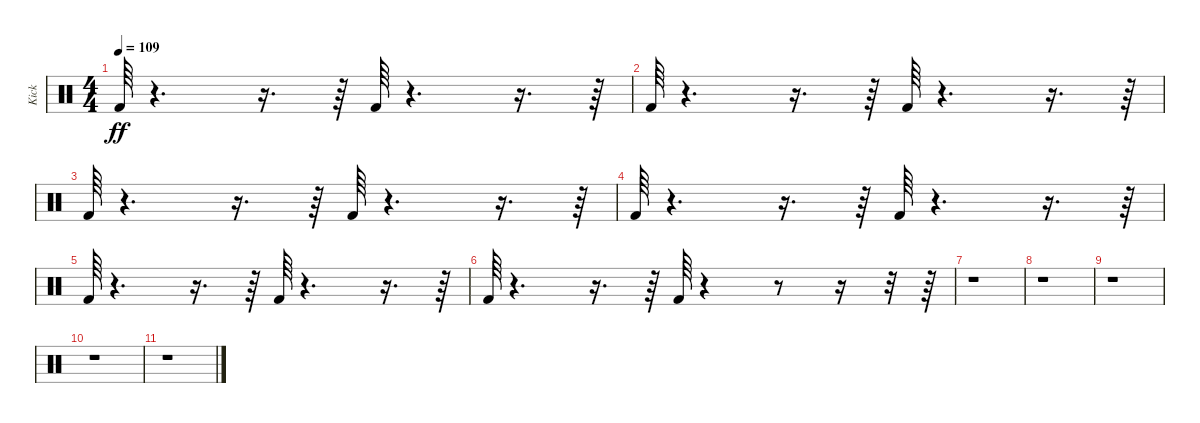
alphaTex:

\track ("Kick" "Kick") {instrument percussion}
\staff {score}
\articulation defaults
\ts (4 4)
\tempo 109
\clef neutral
\ks c "Kick (hit) 2".64{dy ff}
r.4{d} r.16{d} r.64 "Kick (hit) 2".64 r.4{d} r.16{d} r.64 |
"Kick (hit) 2".64 r.4{d} r.16{d} r.64 "Kick (hit) 2".64 r.4{d} r.16{d} r.64 |
"Kick (hit) 2".64 r.4{d} r.16{d} r.64 "Kick (hit) 2".64 r.4{d} r.16{d} r.64 |
"Kick (hit) 2".64 r.4{d} r.16{d} r.64 "Kick (hit) 2".64 r.4{d} r.16{d} r.64 |
"Kick (hit) 2".64 r.4{d} r.16{d} r.64 "Kick (hit) 2".64 r.4{d} r.16{d} r.64 |
"Kick (hit) 2".64 r.4{d} r.16{d} r.64 "Kick (hit) 2".64 r.4 r.8 r.16 r.32 r.64 |
r.1 |
r.1 |
r.1 |
r.1 |
r.1
